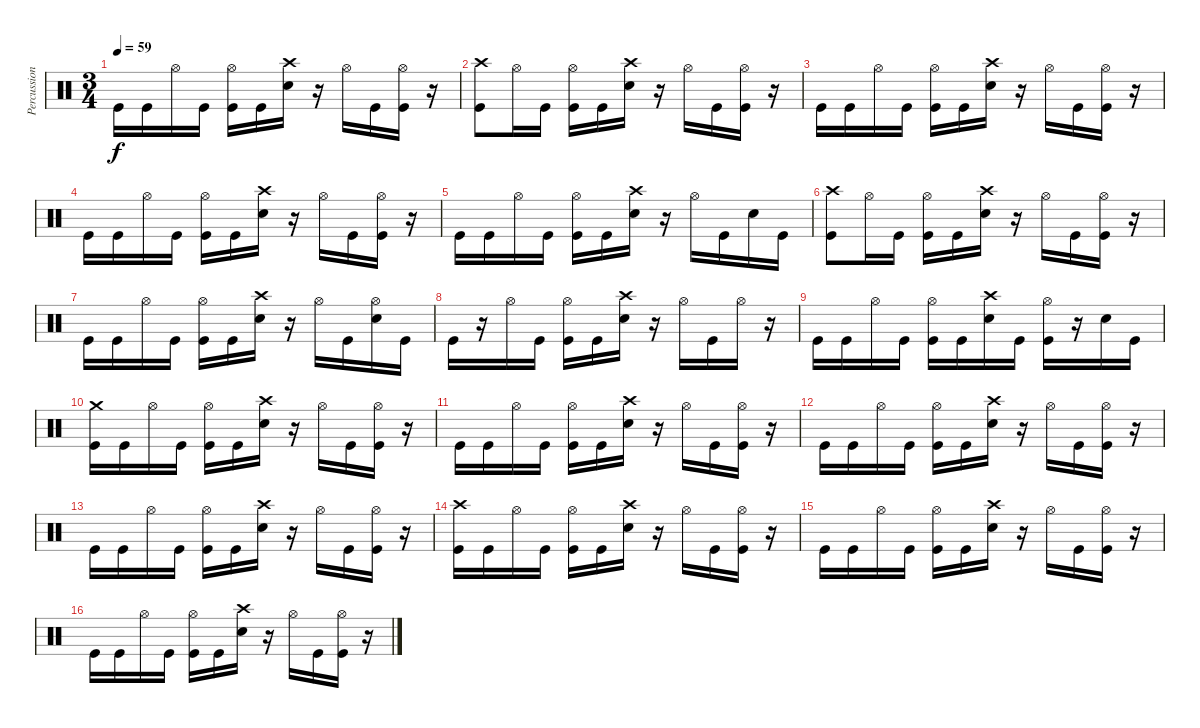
\track ("Percussion" "Percussion") {instrument percussion}
\staff {score}
\articulation defaults
\ts (3 4)
\tempo 59
\clef neutral
\ks c "Kick (hit)".16{dy f} "Kick (hit)".16 "Hi-Hat (open)".16 "Kick (hit)".16
("Hi-Hat (open)" "Kick (hit)").16 "Kick (hit)".16 ("Crash high (hit)" "Electric Snare (hit)").16 r.16 "Hi-Hat (open)".16 "Kick (hit)".16 ("Hi-Hat (open)" "Kick (hit)").16 r.16 |
("Crash high (hit)" "Kick (hit)").8 "Hi-Hat (open)".16 "Kick (hit)".16 ("Hi-Hat (open)" "Kick (hit)").16 "Kick (hit)".16 ("Crash high (hit)" "Electric Snare (hit)").16 r.16 "Hi-Hat (open)".16 "Kick (hit)".16 ("Hi-Hat (open)" "Kick (hit)").16 r.16 |
"Kick (hit)".16 "Kick (hit)".16 "Hi-Hat (open)".16 "Kick (hit)".16 ("Hi-Hat (open)" "Kick (hit)").16 "Kick (hit)".16 ("Crash high (hit)" "Electric Snare (hit)").16 r.16 "Hi-Hat (open)".16 "Kick (hit)".16 ("Hi-Hat (open)" "Kick (hit)").16 r.16 |
"Kick (hit)".16 "Kick (hit)".16 "Hi-Hat (open)".16 "Kick (hit)".16 ("Hi-Hat (open)" "Kick (hit)").16 "Kick (hit)".16 ("Crash high (hit)" "Electric Snare (hit)").16 r.16 "Hi-Hat (open)".16 "Kick (hit)".16 ("Hi-Hat (open)" "Kick (hit)").16 r.16 |
"Kick (hit)".16 "Kick (hit)".16 "Hi-Hat (open)".16 "Kick (hit)".16 ("Hi-Hat (open)" "Kick (hit)").16 "Kick (hit)".16 ("Crash high (hit)" "Electric Snare (hit)").16 r.16 "Hi-Hat (open)".16 "Kick (hit)".16 "Electric Snare (hit)".16 "Kick (hit)".16 |
("Crash high (hit)" "Kick (hit)").8 "Hi-Hat (open)".16 "Kick (hit)".16 ("Hi-Hat (open)" "Kick (hit)").16 "Kick (hit)".16 ("Crash high (hit)" "Electric Snare (hit)").16 r.16 "Hi-Hat (open)".16 "Kick (hit)".16 ("Hi-Hat (open)" "Kick (hit)").16 r.16 |
"Kick (hit)".16 "Kick (hit)".16 "Hi-Hat (open)".16 "Kick (hit)".16 ("Hi-Hat (open)" "Kick (hit)").16 "Kick (hit)".16 ("Crash high (hit)" "Electric Snare (hit)").16 r.16 "Hi-Hat (open)".16 "Kick (hit)".16 ("Hi-Hat (open)" "Electric Snare (hit)").16 "Kick (hit)".16 |
"Kick (hit)".16 r.16 "Hi-Hat (open)".16 "Kick (hit)".16 ("Hi-Hat (open)" "Kick (hit)").16 "Kick (hit)".16 ("Crash high (hit)" "Electric Snare (hit)").16 r.16 "Hi-Hat (open)".16 "Kick (hit)".16 "Hi-Hat (open)".16 r.16 |
"Kick (hit)".16 "Kick (hit)".16 "Hi-Hat (open)".16 "Kick (hit)".16 ("Hi-Hat (open)" "Kick (hit)").16 "Kick (hit)".16 ("Crash high (hit)" "Electric Snare (hit)").16 "Kick (hit)".16 ("Hi-Hat (open)" "Kick (hit)").16 r.16 "Electric Snare (hit)".16 "Kick (hit)".16 |
("Crash medium (hit)" "Kick (hit)").16 "Kick (hit)".16 "Hi-Hat (open)".16 "Kick (hit)".16 ("Hi-Hat (open)" "Kick (hit)").16 "Kick (hit)".16 ("Crash high (hit)" "Electric Snare (hit)").16 r.16 "Hi-Hat (open)".16 "Kick (hit)".16 ("Hi-Hat (open)" "Kick (hit)").16 r.16 |
"Kick (hit)".16 "Kick (hit)".16 "Hi-Hat (open)".16 "Kick (hit)".16 ("Hi-Hat (open)" "Kick (hit)").16 "Kick (hit)".16 ("Crash high (hit)" "Electric Snare (hit)").16 r.16 "Hi-Hat (open)".16 "Kick (hit)".16 ("Hi-Hat (open)" "Kick (hit)").16 r.16 |
"Kick (hit)".16 "Kick (hit)".16 "Hi-Hat (open)".16 "Kick (hit)".16 ("Hi-Hat (open)" "Kick (hit)").16 "Kick (hit)".16 ("Crash high (hit)" "Electric Snare (hit)").16 r.16 "Hi-Hat (open)".16 "Kick (hit)".16 ("Hi-Hat (open)" "Kick (hit)").16 r.16 |
"Kick (hit)".16 "Kick (hit)".16 "Hi-Hat (open)".16 "Kick (hit)".16 ("Hi-Hat (open)" "Kick (hit)").16 "Kick (hit)".16 ("Crash high (hit)" "Electric Snare (hit)").16 r.16 "Hi-Hat (open)".16 "Kick (hit)".16 ("Hi-Hat (open)" "Kick (hit)").16 r.16 |
("Crash high (hit)" "Kick (hit)").16 "Kick (hit)".16 "Hi-Hat (open)".16 "Kick (hit)".16 ("Hi-Hat (open)" "Kick (hit)").16 "Kick (hit)".16 ("Crash high (hit)" "Electric Snare (hit)").16 r.16 "Hi-Hat (open)".16 "Kick (hit)".16 ("Hi-Hat (open)" "Kick (hit)").16 r.16 |
"Kick (hit)".16 "Kick (hit)".16 "Hi-Hat (open)".16 "Kick (hit)".16 ("Hi-Hat (open)" "Kick (hit)").16 "Kick (hit)".16 ("Crash high (hit)" "Electric Snare (hit)").16 r.16 "Hi-Hat (open)".16 "Kick (hit)".16 ("Hi-Hat (open)" "Kick (hit)").16 r.16 |
"Kick (hit)".16 "Kick (hit)".16 "Hi-Hat (open)".16 "Kick (hit)".16 ("Hi-Hat (open)" "Kick (hit)").16 "Kick (hit)".16 ("Crash high (hit)" "Electric Snare (hit)").16 r.16 "Hi-Hat (open)".16 "Kick (hit)".16 ("Hi-Hat (open)" "Kick (hit)").16 r.16
